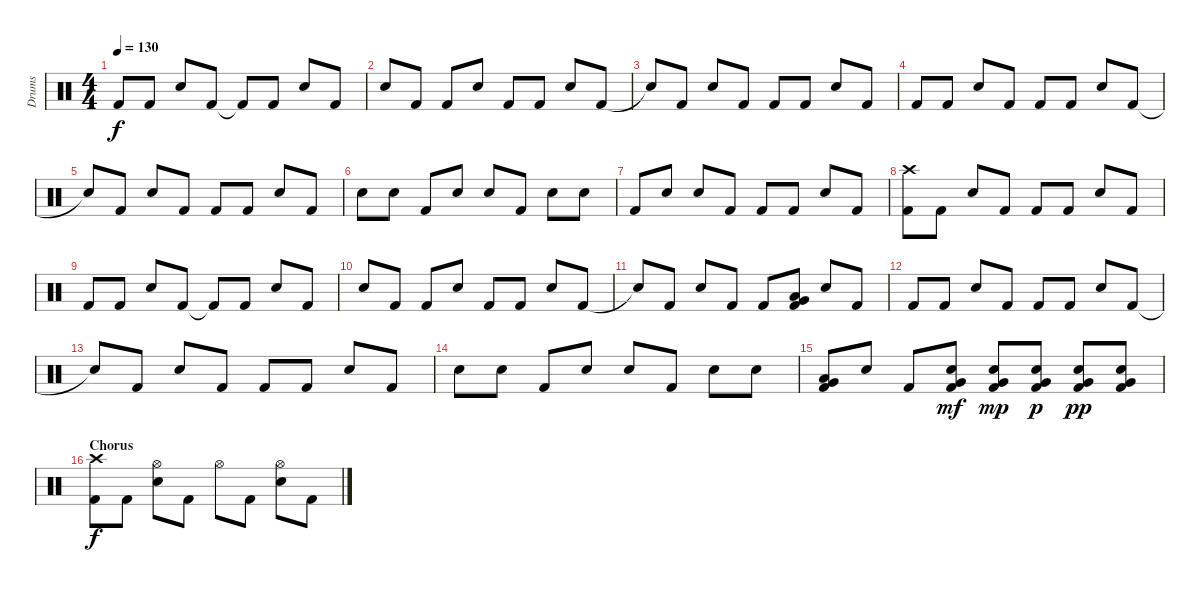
\track ("Drums" "Drums") {instrument percussion}
\staff {score}
\articulation defaults
\ts (4 4)
\tempo 130
\clef neutral
\ks c "Kick (hit) 2".8{dy f} "Kick (hit) 2".8 "Electric Snare (hit)".8 "Kick (hit) 2".8 "Kick (hit) 2"{t}.8 "Kick (hit) 2".8 "Electric Snare (hit)".8 "Kick (hit) 2".8
|
"Electric Snare (hit)".8 "Kick (hit) 2".8 "Kick (hit) 2".8 "Electric Snare (hit)".8 "Kick (hit) 2".8 "Kick (hit) 2".8 "Electric Snare (hit)".8 "Kick (hit) 2".8 |
"Snare (hit)"{t}.8 "Kick (hit) 2".8 "Electric Snare (hit)".8 "Kick (hit) 2".8 "Kick (hit) 2".8 "Kick (hit) 2".8 "Electric Snare (hit)".8 "Kick (hit) 2".8 |
"Kick (hit) 2".8 "Kick (hit) 2".8 "Electric Snare (hit)".8 "Kick (hit) 2".8 "Kick (hit) 2".8 "Kick (hit) 2".8 "Electric Snare (hit)".8 "Kick (hit) 2".8 |
"Snare (hit)"{t}.8 "Kick (hit) 2".8 "Electric Snare (hit)".8 "Kick (hit) 2".8 "Kick (hit) 2".8 "Kick (hit) 2".8 "Electric Snare (hit)".8 "Kick (hit) 2".8 |
"Electric Snare (hit)".8 "Electric Snare (hit)".8 "Kick (hit) 2".8 "Electric Snare (hit)".8 "Electric Snare (hit)".8 "Kick (hit) 2".8 "Electric Snare (hit)".8 "Electric Snare (hit)".8 |
"Kick (hit) 2".8 "Electric Snare (hit)".8 "Electric Snare (hit)".8 "Kick (hit) 2".8 "Kick (hit) 2".8 "Kick (hit) 2".8 "Electric Snare (hit)".8 "Kick (hit) 2".8 |
("Crash high (hit)" "Kick (hit) 2").8 "Kick (hit) 2".8 "Electric Snare (hit)".8 "Kick (hit) 2".8 "Kick (hit) 2".8 "Kick (hit) 2".8 "Electric Snare (hit)".8 "Kick (hit) 2".8 |
"Kick (hit) 2".8 "Kick (hit) 2".8 "Electric Snare (hit)".8 "Kick (hit) 2".8 "Kick (hit) 2"{t}.8 "Kick (hit) 2".8 "Electric Snare (hit)".8 "Kick (hit) 2".8 |
"Electric Snare (hit)".8 "Kick (hit) 2".8 "Kick (hit) 2".8 "Electric Snare (hit)".8 "Kick (hit) 2".8 "Kick (hit) 2".8 "Electric Snare (hit)".8 "Kick (hit) 2".8 |
"Snare (hit)"{t}.8 "Kick (hit) 2".8 "Electric Snare (hit)".8 "Kick (hit) 2".8 "Kick (hit) 2".8 ("Low Floor Tom (hit)" "Very Low Tom (hit)" "Kick (hit) 2").8 "Electric Snare (hit)".8 "Kick (hit) 2".8 |
"Kick (hit) 2".8 "Kick (hit) 2".8 "Electric Snare (hit)".8 "Kick (hit) 2".8 "Kick (hit) 2".8 "Kick (hit) 2".8 "Electric Snare (hit)".8 "Kick (hit) 2".8 |
"Snare (hit)"{t}.8 "Kick (hit) 2".8 "Electric Snare (hit)".8 "Kick (hit) 2".8 "Kick (hit) 2".8 "Kick (hit) 2".8 "Electric Snare (hit)".8 "Kick (hit) 2".8 |
"Electric Snare (hit)".8 "Electric Snare (hit)".8 "Kick (hit) 2".8 "Electric Snare (hit)".8 "Electric Snare (hit)".8 "Kick (hit) 2".8 "Electric Snare (hit)".8 "Electric Snare (hit)".8 |
("Low Floor Tom (hit)" "Very Low Tom (hit)" "Kick (hit) 2").8 "Electric Snare (hit)".8 "Kick (hit) 2".8 ("Very Low Tom (hit)" "Electric Snare (hit)" "Kick (hit) 2").8{dy mf} ("Very Low Tom (hit)" "Electric Snare (hit)" "Kick (hit) 2").8{dy mp} ("Very Low Tom (hit)" "Electric Snare (hit)" "Kick (hit) 2").8{dy p} ("Very Low Tom (hit)" "Electric Snare (hit)" "Kick (hit) 2").8{dy pp} ("Very Low Tom (hit)" "Electric Snare (hit)" "Kick (hit) 2").8 |
\section ("" "Chorus")
("Crash high (hit)" "Kick (hit) 2").8{dy f} "Kick (hit) 2".8 ("Hi-Hat (open)" "Electric Snare (hit)").8 "Kick (hit) 2".8 "Hi-Hat (open)".8 "Kick (hit) 2".8 ("Hi-Hat (open)" "Electric Snare (hit)").8 "Kick (hit) 2".8
